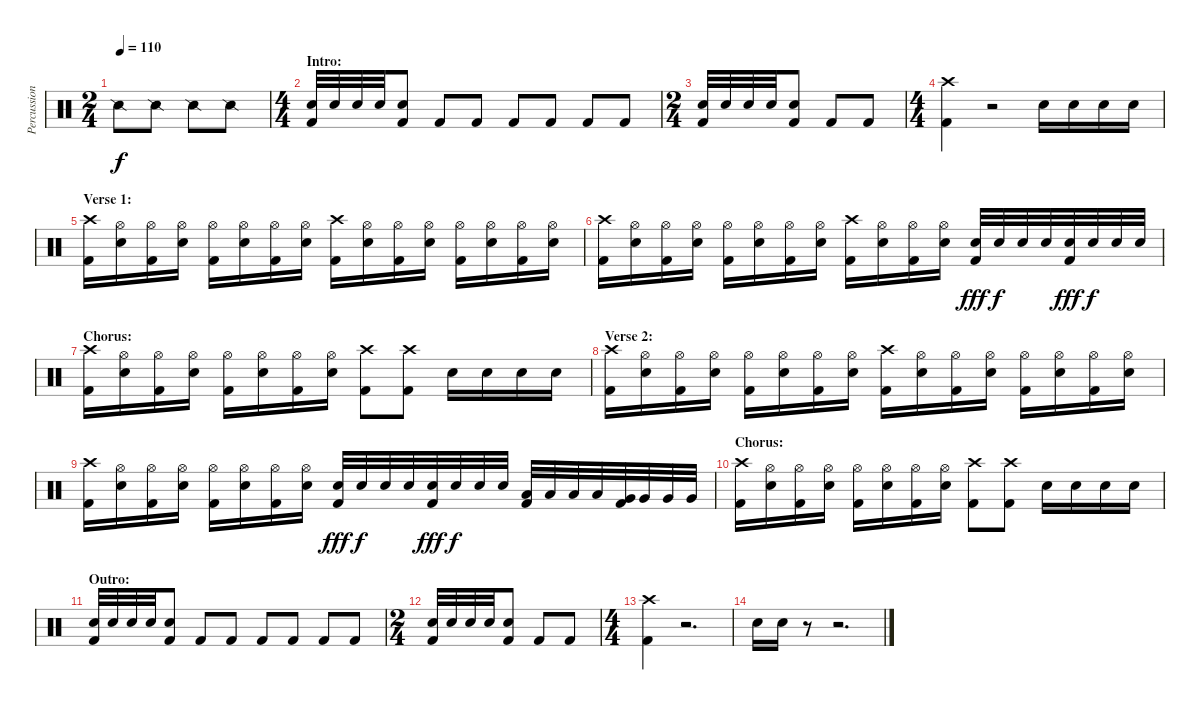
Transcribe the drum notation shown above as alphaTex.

\track ("Percussion" "Percussion") {instrument percussion}
\staff {score}
\articulation defaults
\ts (2 4)
\tempo 110
\clef neutral
\ks c "Snare (side stick) 2".8{dy f} "Snare (side stick) 2".8 "Snare (side stick) 2".8 "Snare (side stick) 2".8
|
\ts (4 4)
\section ("" "Intro:")
("Electric Snare (hit)" "Kick (hit) 2").32 "Electric Snare (hit)".32 "Electric Snare (hit)".32 "Electric Snare (hit)".32 ("Electric Snare (hit)" "Kick (hit) 2").8 "Kick (hit) 2".8 "Kick (hit) 2".8 "Kick (hit) 2".8 "Kick (hit) 2".8 "Kick (hit) 2".8 "Kick (hit) 2".8 |
\ts (2 4)
("Electric Snare (hit)" "Kick (hit) 2").32 "Electric Snare (hit)".32 "Electric Snare (hit)".32 "Electric Snare (hit)".32 ("Electric Snare (hit)" "Kick (hit) 2").8 "Kick (hit) 2".8 "Kick (hit) 2".8 |
\ts (4 4)
("Crash high (hit)" "Kick (hit) 2").4 r.2 "Electric Snare (hit)".16 "Electric Snare (hit)".16 "Electric Snare (hit)".16 "Electric Snare (hit)".16 |
\section ("" "Verse 1:")
("Crash high (hit)" "Kick (hit) 2").16 ("Hi-Hat (open)" "Electric Snare (hit)").16 ("Hi-Hat (open)" "Kick (hit) 2").16 ("Hi-Hat (open)" "Electric Snare (hit)").16 ("Hi-Hat (open)" "Kick (hit) 2").16 ("Hi-Hat (open)" "Electric Snare (hit)").16 ("Hi-Hat (open)" "Kick (hit) 2").16 ("Hi-Hat (open)" "Electric Snare (hit)").16 ("Crash high (hit)" "Kick (hit) 2").16 ("Hi-Hat (open)" "Electric Snare (hit)").16 ("Hi-Hat (open)" "Kick (hit) 2").16 ("Hi-Hat (open)" "Electric Snare (hit)").16 ("Hi-Hat (open)" "Kick (hit) 2").16 ("Hi-Hat (open)" "Electric Snare (hit)").16 ("Hi-Hat (open)" "Kick (hit) 2").16 ("Hi-Hat (open)" "Electric Snare (hit)").16 |
("Crash high (hit)" "Kick (hit) 2").16 ("Hi-Hat (open)" "Electric Snare (hit)").16 ("Hi-Hat (open)" "Kick (hit) 2").16 ("Hi-Hat (open)" "Electric Snare (hit)").16 ("Hi-Hat (open)" "Kick (hit) 2").16 ("Hi-Hat (open)" "Electric Snare (hit)").16 ("Hi-Hat (open)" "Kick (hit) 2").16 ("Hi-Hat (open)" "Electric Snare (hit)").16 ("Crash high (hit)" "Kick (hit) 2").16 ("Hi-Hat (open)" "Electric Snare (hit)").16 ("Hi-Hat (open)" "Kick (hit) 2").16 ("Hi-Hat (open)" "Electric Snare (hit)").16 ("Electric Snare (hit)" "Kick (hit) 2").32{dy fff} "Electric Snare (hit)".32{dy f} "Electric Snare (hit)".32 "Electric Snare (hit)".32 ("Electric Snare (hit)" "Kick (hit) 2").32{dy fff} "Electric Snare (hit)".32{dy f} "Electric Snare (hit)".32 "Electric Snare (hit)".32 |
\section ("" "Chorus:")
("Crash high (hit)" "Kick (hit) 2").16 ("Hi-Hat (open)" "Electric Snare (hit)").16 ("Hi-Hat (open)" "Kick (hit) 2").16 ("Hi-Hat (open)" "Electric Snare (hit)").16 ("Hi-Hat (open)" "Kick (hit) 2").16 ("Hi-Hat (open)" "Electric Snare (hit)").16 ("Hi-Hat (open)" "Kick (hit) 2").16 ("Hi-Hat (open)" "Electric Snare (hit)").16 ("Crash high (hit)" "Kick (hit) 2").8 ("Crash high (hit)" "Kick (hit) 2").8 "Electric Snare (hit)".16 "Electric Snare (hit)".16 "Electric Snare (hit)".16 "Electric Snare (hit)".16 |
\section ("" "Verse 2:")
("Crash high (hit)" "Kick (hit) 2").16 ("Hi-Hat (open)" "Electric Snare (hit)").16 ("Hi-Hat (open)" "Kick (hit) 2").16 ("Hi-Hat (open)" "Electric Snare (hit)").16 ("Hi-Hat (open)" "Kick (hit) 2").16 ("Hi-Hat (open)" "Electric Snare (hit)").16 ("Hi-Hat (open)" "Kick (hit) 2").16 ("Hi-Hat (open)" "Electric Snare (hit)").16 ("Crash high (hit)" "Kick (hit) 2").16 ("Hi-Hat (open)" "Electric Snare (hit)").16 ("Hi-Hat (open)" "Kick (hit) 2").16 ("Hi-Hat (open)" "Electric Snare (hit)").16 ("Hi-Hat (open)" "Kick (hit) 2").16 ("Hi-Hat (open)" "Electric Snare (hit)").16 ("Hi-Hat (open)" "Kick (hit) 2").16 ("Hi-Hat (open)" "Electric Snare (hit)").16 |
("Crash high (hit)" "Kick (hit) 2").16 ("Hi-Hat (open)" "Electric Snare (hit)").16 ("Hi-Hat (open)" "Kick (hit) 2").16 ("Hi-Hat (open)" "Electric Snare (hit)").16 ("Hi-Hat (open)" "Kick (hit) 2").16 ("Hi-Hat (open)" "Electric Snare (hit)").16 ("Hi-Hat (open)" "Kick (hit) 2").16 ("Hi-Hat (open)" "Electric Snare (hit)").16 ("Electric Snare (hit)" "Kick (hit) 2").32{dy fff} "Electric Snare (hit)".32{dy f} "Electric Snare (hit)".32 "Electric Snare (hit)".32 ("Electric Snare (hit)" "Kick (hit) 2").32{dy fff} "Electric Snare (hit)".32{dy f} "Electric Snare (hit)".32 "Electric Snare (hit)".32 ("Low Tom (hit)" "Kick (hit) 2").32 "Low Tom (hit)".32 "Low Tom (hit)".32 "Low Tom (hit)".32 ("Very Low Tom (hit)" "Kick (hit) 2").32 "Very Low Tom (hit)".32 "Very Low Tom (hit)".32 "Very Low Tom (hit)".32 |
\section ("" "Chorus:")
("Crash high (hit)" "Kick (hit) 2").16 ("Hi-Hat (open)" "Electric Snare (hit)").16 ("Hi-Hat (open)" "Kick (hit) 2").16 ("Hi-Hat (open)" "Electric Snare (hit)").16 ("Hi-Hat (open)" "Kick (hit) 2").16 ("Hi-Hat (open)" "Electric Snare (hit)").16 ("Hi-Hat (open)" "Kick (hit) 2").16 ("Hi-Hat (open)" "Electric Snare (hit)").16 ("Crash high (hit)" "Kick (hit) 2").8 ("Crash high (hit)" "Kick (hit) 2").8 "Electric Snare (hit)".16 "Electric Snare (hit)".16 "Electric Snare (hit)".16 "Electric Snare (hit)".16 |
\section ("" "Outro:")
("Electric Snare (hit)" "Kick (hit) 2").32 "Electric Snare (hit)".32 "Electric Snare (hit)".32 "Electric Snare (hit)".32 ("Electric Snare (hit)" "Kick (hit) 2").8 "Kick (hit) 2".8 "Kick (hit) 2".8 "Kick (hit) 2".8 "Kick (hit) 2".8 "Kick (hit) 2".8 "Kick (hit) 2".8 |
\ts (2 4)
("Electric Snare (hit)" "Kick (hit) 2").32 "Electric Snare (hit)".32 "Electric Snare (hit)".32 "Electric Snare (hit)".32 ("Electric Snare (hit)" "Kick (hit) 2").8 "Kick (hit) 2".8 "Kick (hit) 2".8 |
\ts (4 4)
("Crash high (hit)" "Kick (hit) 2").4 r.2{d} |
"Electric Snare (hit)".16 "Electric Snare (hit)".16 r.8 r.2{d}
